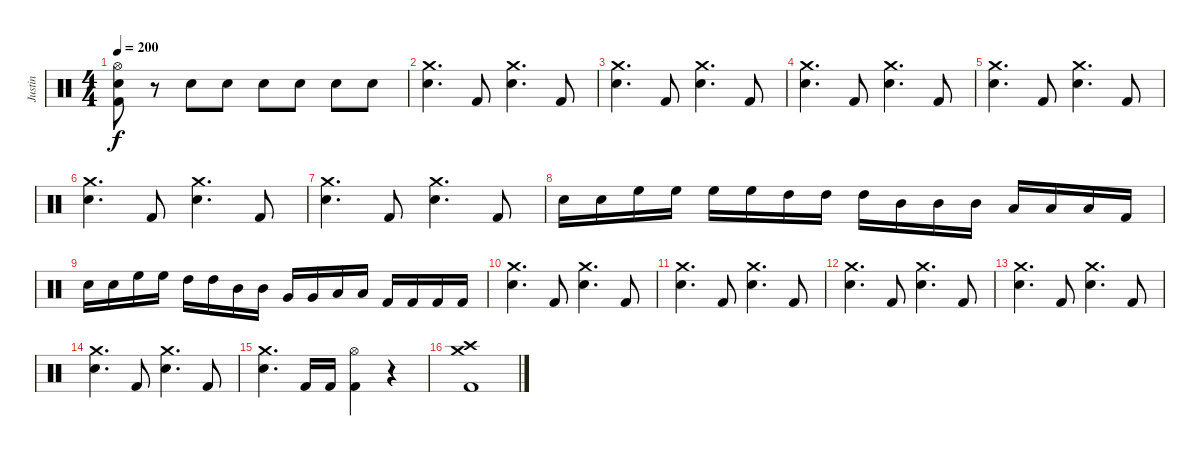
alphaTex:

\track ("Justin" "Justin") {instrument percussion}
\staff {score}
\articulation defaults
\ts (4 4)
\tempo 200
\clef neutral
\ks c
("Hi-Hat (open)" "Electric Snare (hit)" "Kick (hit) 2").8{dy f} r.8 "Electric Snare (hit)".8 "Electric Snare (hit)".8 "Electric Snare (hit)".8 "Electric Snare (hit)".8 "Electric Snare (hit)".8 "Electric Snare (hit)".8 |
("Crash medium (hit)" "Electric Snare (hit)").4{d} "Kick (hit) 2".8 ("Crash medium (hit)" "Electric Snare (hit)").4{d} "Kick (hit) 2".8 |
("Crash medium (hit)" "Electric Snare (hit)").4{d} "Kick (hit) 2".8 ("Crash medium (hit)" "Electric Snare (hit)").4{d} "Kick (hit) 2".8 |
("Crash medium (hit)" "Electric Snare (hit)").4{d} "Kick (hit) 2".8 ("Crash medium (hit)" "Electric Snare (hit)").4{d} "Kick (hit) 2".8 |
("Crash medium (hit)" "Electric Snare (hit)").4{d} "Kick (hit) 2".8 ("Crash medium (hit)" "Electric Snare (hit)").4{d} "Kick (hit) 2".8 |
("Crash medium (hit)" "Electric Snare (hit)").4{d} "Kick (hit) 2".8 ("Crash medium (hit)" "Electric Snare (hit)").4{d} "Kick (hit) 2".8 |
("Crash medium (hit)" "Electric Snare (hit)").4{d} "Kick (hit) 2".8 ("Crash medium (hit)" "Electric Snare (hit)").4{d} "Kick (hit) 2".8 |
"Electric Snare (hit)".16 "Electric Snare (hit)".16 "High Floor Tom (hit)".16 "High Floor Tom (hit)".16 "High Floor Tom (hit)".16 "High Floor Tom (hit)".16 "High Tom (hit)".16 "High Tom (hit)".16 "High Tom (hit)".16 "Mid Tom (hit)".16 "Mid Tom (hit)".16 "Mid Tom (hit)".16 "Low Tom (hit)".16 "Low Tom (hit)".16 "Low Tom (hit)".16 "Kick (hit) 2".16 |
"Electric Snare (hit)".16 "Electric Snare (hit)".16 "High Floor Tom (hit)".16 "High Floor Tom (hit)".16 "High Tom (hit)".16 "High Tom (hit)".16 "Mid Tom (hit)".16 "Mid Tom (hit)".16 "Very Low Tom (hit)".16 "Very Low Tom (hit)".16 "Low Floor Tom (hit)".16 "Low Floor Tom (hit)".16 "Kick (hit) 2".16 "Kick (hit) 2".16 "Kick (hit) 2".16 "Kick (hit) 2".16 |
("Crash medium (hit)" "Electric Snare (hit)").4{d} "Kick (hit) 2".8 ("Crash medium (hit)" "Electric Snare (hit)").4{d} "Kick (hit) 2".8 |
("Crash medium (hit)" "Electric Snare (hit)").4{d} "Kick (hit) 2".8 ("Crash medium (hit)" "Electric Snare (hit)").4{d} "Kick (hit) 2".8 |
("Crash medium (hit)" "Electric Snare (hit)").4{d} "Kick (hit) 2".8 ("Crash medium (hit)" "Electric Snare (hit)").4{d} "Kick (hit) 2".8 |
("Crash medium (hit)" "Electric Snare (hit)").4{d} "Kick (hit) 2".8 ("Crash medium (hit)" "Electric Snare (hit)").4{d} "Kick (hit) 2".8 |
("Crash medium (hit)" "Electric Snare (hit)").4{d} "Kick (hit) 2".8 ("Crash medium (hit)" "Electric Snare (hit)").4{d} "Kick (hit) 2".8 |
("Crash medium (hit)" "Electric Snare (hit)").4{d} "Kick (hit) 2".16 "Kick (hit) 2".16 ("Hi-Hat (open)" "Kick (hit) 2").4 r.4 |
("Crash medium (hit)" "Crash high (hit)" "Kick (hit) 2").1
